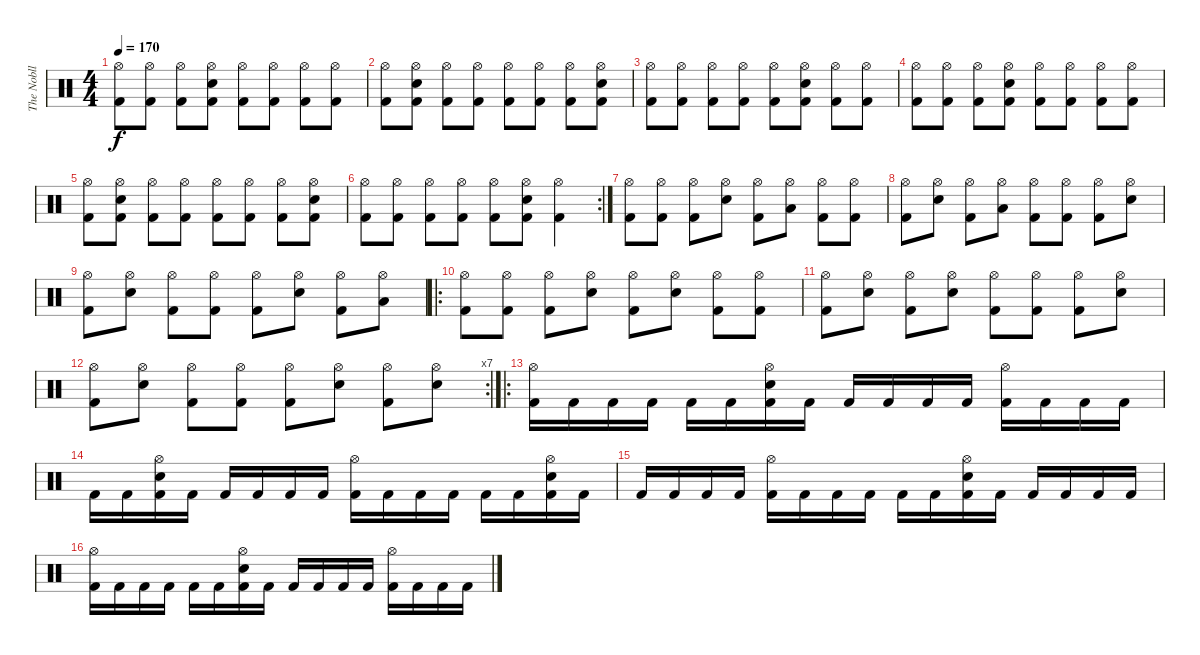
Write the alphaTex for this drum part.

\track ("The Nobll" "The Nobll") {instrument percussion}
\staff {score}
\articulation defaults
\ts (4 4)
\tempo 170
\clef neutral
\ks c
("Hi-Hat (open)" "Kick (hit) 2").8{dy f} ("Hi-Hat (open)" "Kick (hit) 2").8 ("Hi-Hat (open)" "Kick (hit) 2").8 ("Hi-Hat (open)" "Snare (hit) 2" "Kick (hit) 2").8 ("Hi-Hat (open)" "Kick (hit) 2").8 ("Hi-Hat (open)" "Kick (hit) 2").8 ("Hi-Hat (open)" "Kick (hit) 2").8 ("Hi-Hat (open)" "Kick (hit) 2").8 |
("Hi-Hat (open)" "Kick (hit) 2").8 ("Hi-Hat (open)" "Snare (hit) 2" "Kick (hit) 2").8 ("Hi-Hat (open)" "Kick (hit) 2").8 ("Hi-Hat (open)" "Kick (hit) 2").8 ("Hi-Hat (open)" "Kick (hit) 2").8 ("Hi-Hat (open)" "Kick (hit) 2").8 ("Hi-Hat (open)" "Kick (hit) 2").8 ("Hi-Hat (open)" "Snare (hit) 2" "Kick (hit) 2").8 |
("Hi-Hat (open)" "Kick (hit) 2").8 ("Hi-Hat (open)" "Kick (hit) 2").8 ("Hi-Hat (open)" "Kick (hit) 2").8 ("Hi-Hat (open)" "Kick (hit) 2").8 ("Hi-Hat (open)" "Kick (hit) 2").8 ("Hi-Hat (open)" "Snare (hit) 2" "Kick (hit) 2").8 ("Hi-Hat (open)" "Kick (hit) 2").8 ("Hi-Hat (open)" "Kick (hit) 2").8 |
("Hi-Hat (open)" "Kick (hit) 2").8 ("Hi-Hat (open)" "Kick (hit) 2").8 ("Hi-Hat (open)" "Kick (hit) 2").8 ("Hi-Hat (open)" "Snare (hit) 2" "Kick (hit) 2").8 ("Hi-Hat (open)" "Kick (hit) 2").8 ("Hi-Hat (open)" "Kick (hit) 2").8 ("Hi-Hat (open)" "Kick (hit) 2").8 ("Hi-Hat (open)" "Kick (hit) 2").8 |
("Hi-Hat (open)" "Kick (hit) 2").8 ("Hi-Hat (open)" "Snare (hit) 2" "Kick (hit) 2").8 ("Hi-Hat (open)" "Kick (hit) 2").8 ("Hi-Hat (open)" "Kick (hit) 2").8 ("Hi-Hat (open)" "Kick (hit) 2").8 ("Hi-Hat (open)" "Kick (hit) 2").8 ("Hi-Hat (open)" "Kick (hit) 2").8 ("Hi-Hat (open)" "Snare (hit) 2" "Kick (hit) 2").8 |
\rc 2
("Hi-Hat (open)" "Kick (hit) 2").8 ("Hi-Hat (open)" "Kick (hit) 2").8 ("Hi-Hat (open)" "Kick (hit) 2").8 ("Hi-Hat (open)" "Kick (hit) 2").8 ("Hi-Hat (open)" "Kick (hit) 2").8 ("Hi-Hat (open)" "Snare (hit) 2" "Kick (hit) 2").8 ("Hi-Hat (open)" "Kick (hit) 2").4 |
("Hi-Hat (open)" "Kick (hit) 2").8 ("Hi-Hat (open)" "Kick (hit) 2").8 ("Hi-Hat (open)" "Kick (hit) 2").8 ("Hi-Hat (open)" "Snare (hit) 2").8 ("Hi-Hat (open)" "Kick (hit) 2").8 ("Hi-Hat (open)" "Low Tom (hit)").8 ("Hi-Hat (open)" "Kick (hit) 2").8 ("Hi-Hat (open)" "Kick (hit) 2").8 |
("Hi-Hat (open)" "Kick (hit) 2").8 ("Hi-Hat (open)" "Snare (hit) 2").8 ("Hi-Hat (open)" "Kick (hit) 2").8 ("Hi-Hat (open)" "Low Tom (hit)").8 ("Hi-Hat (open)" "Kick (hit) 2").8 ("Hi-Hat (open)" "Kick (hit) 2").8 ("Hi-Hat (open)" "Kick (hit) 2").8 ("Hi-Hat (open)" "Snare (hit) 2").8 |
("Hi-Hat (open)" "Kick (hit) 2").8 ("Hi-Hat (open)" "Snare (hit) 2").8 ("Hi-Hat (open)" "Kick (hit) 2").8 ("Hi-Hat (open)" "Kick (hit) 2").8 ("Hi-Hat (open)" "Kick (hit) 2").8 ("Hi-Hat (open)" "Snare (hit) 2").8 ("Hi-Hat (open)" "Kick (hit) 2").8 ("Hi-Hat (open)" "Low Tom (hit)").8 |
\ro
("Hi-Hat (open)" "Kick (hit) 2").8 ("Hi-Hat (open)" "Kick (hit) 2").8 ("Hi-Hat (open)" "Kick (hit) 2").8 ("Hi-Hat (open)" "Snare (hit) 2").8 ("Hi-Hat (open)" "Kick (hit) 2").8 ("Hi-Hat (open)" "Snare (hit) 2").8 ("Hi-Hat (open)" "Kick (hit) 2").8 ("Hi-Hat (open)" "Kick (hit) 2").8 |
("Hi-Hat (open)" "Kick (hit) 2").8 ("Hi-Hat (open)" "Snare (hit) 2").8 ("Hi-Hat (open)" "Kick (hit) 2").8 ("Hi-Hat (open)" "Snare (hit) 2").8 ("Hi-Hat (open)" "Kick (hit) 2").8 ("Hi-Hat (open)" "Kick (hit) 2").8 ("Hi-Hat (open)" "Kick (hit) 2").8 ("Hi-Hat (open)" "Snare (hit) 2").8 |
\rc 7
("Hi-Hat (open)" "Kick (hit) 2").8 ("Hi-Hat (open)" "Snare (hit) 2").8 ("Hi-Hat (open)" "Kick (hit) 2").8 ("Hi-Hat (open)" "Kick (hit) 2").8 ("Hi-Hat (open)" "Kick (hit) 2").8 ("Hi-Hat (open)" "Snare (hit) 2").8 ("Hi-Hat (open)" "Kick (hit) 2").8 ("Hi-Hat (open)" "Snare (hit) 2").8 |
\ro
("Hi-Hat (open)" "Kick (hit) 2").16 "Kick (hit) 2".16 "Kick (hit) 2".16 "Kick (hit) 2".16 "Kick (hit) 2".16 "Kick (hit) 2".16 ("Hi-Hat (open)" "Snare (hit) 2" "Kick (hit) 2").16 "Kick (hit) 2".16 "Kick (hit) 2".16 "Kick (hit) 2".16 "Kick (hit) 2".16 "Kick (hit) 2".16 ("Hi-Hat (open)" "Kick (hit) 2").16 "Kick (hit) 2".16 "Kick (hit) 2".16 "Kick (hit) 2".16 |
"Kick (hit) 2".16 "Kick (hit) 2".16 ("Hi-Hat (open)" "Snare (hit) 2" "Kick (hit) 2").16 "Kick (hit) 2".16 "Kick (hit) 2".16 "Kick (hit) 2".16 "Kick (hit) 2".16 "Kick (hit) 2".16 ("Hi-Hat (open)" "Kick (hit) 2").16 "Kick (hit) 2".16 "Kick (hit) 2".16 "Kick (hit) 2".16 "Kick (hit) 2".16 "Kick (hit) 2".16 ("Hi-Hat (open)" "Snare (hit) 2" "Kick (hit) 2").16 "Kick (hit) 2".16 |
"Kick (hit) 2".16 "Kick (hit) 2".16 "Kick (hit) 2".16 "Kick (hit) 2".16 ("Hi-Hat (open)" "Kick (hit) 2").16 "Kick (hit) 2".16 "Kick (hit) 2".16 "Kick (hit) 2".16 "Kick (hit) 2".16 "Kick (hit) 2".16 ("Hi-Hat (open)" "Snare (hit) 2" "Kick (hit) 2").16 "Kick (hit) 2".16 "Kick (hit) 2".16 "Kick (hit) 2".16 "Kick (hit) 2".16 "Kick (hit) 2".16 |
("Hi-Hat (open)" "Kick (hit) 2").16 "Kick (hit) 2".16 "Kick (hit) 2".16 "Kick (hit) 2".16 "Kick (hit) 2".16 "Kick (hit) 2".16 ("Hi-Hat (open)" "Snare (hit) 2" "Kick (hit) 2").16 "Kick (hit) 2".16 "Kick (hit) 2".16 "Kick (hit) 2".16 "Kick (hit) 2".16 "Kick (hit) 2".16 ("Hi-Hat (open)" "Kick (hit) 2").16 "Kick (hit) 2".16 "Kick (hit) 2".16 "Kick (hit) 2".16
